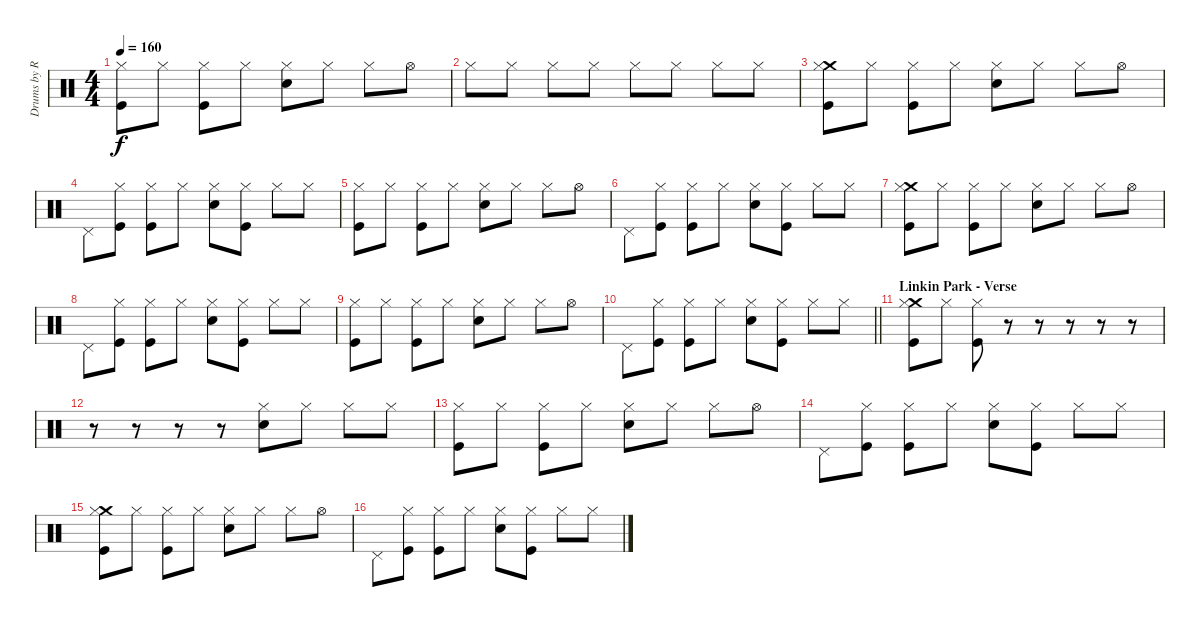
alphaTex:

\track ("Drums by Rob Bourdon" "Drums by R") {instrument percussion}
\staff {score}
\articulation defaults
\ts (4 4)
\tempo 160
\clef neutral
\ks c
("Hi-Hat (closed)" "Kick (hit)").8{dy f} "Hi-Hat (closed)".8 ("Hi-Hat (closed)" "Kick (hit)").8 "Hi-Hat (closed)".8 ("Hi-Hat (closed)" "Snare (hit) 2").8 "Hi-Hat (closed)".8 "Hi-Hat (closed)".8 "Hi-Hat (open)".8 |
"Hi-Hat (closed)".8 "Hi-Hat (closed)".8 "Hi-Hat (closed)".8 "Hi-Hat (closed)".8 "Hi-Hat (closed)".8 "Hi-Hat (closed)".8 "Hi-Hat (closed)".8 "Hi-Hat (closed)".8 |
("Crash medium (hit)" "Hi-Hat (closed)" "Kick (hit)").8 "Hi-Hat (closed)".8 ("Hi-Hat (closed)" "Kick (hit)").8 "Hi-Hat (closed)".8 ("Hi-Hat (closed)" "Snare (hit) 2").8 "Hi-Hat (closed)".8 "Hi-Hat (closed)".8 "Hi-Hat (open)".8 |
"Pedal Hi-Hat (hit)".8 ("Hi-Hat (closed)" "Kick (hit)").8 ("Hi-Hat (closed)" "Kick (hit)").8 "Hi-Hat (closed)".8 ("Hi-Hat (closed)" "Snare (hit) 2").8 ("Hi-Hat (closed)" "Kick (hit)").8 "Hi-Hat (closed)".8 "Hi-Hat (closed)".8 |
("Hi-Hat (closed)" "Kick (hit)").8 "Hi-Hat (closed)".8 ("Hi-Hat (closed)" "Kick (hit)").8 "Hi-Hat (closed)".8 ("Hi-Hat (closed)" "Snare (hit) 2").8 "Hi-Hat (closed)".8 "Hi-Hat (closed)".8 "Hi-Hat (open)".8 |
"Pedal Hi-Hat (hit)".8 ("Hi-Hat (closed)" "Kick (hit)").8 ("Hi-Hat (closed)" "Kick (hit)").8 "Hi-Hat (closed)".8 ("Hi-Hat (closed)" "Snare (hit) 2").8 ("Hi-Hat (closed)" "Kick (hit)").8 "Hi-Hat (closed)".8 "Hi-Hat (closed)".8 |
("Crash medium (hit)" "Hi-Hat (closed)" "Kick (hit)").8 "Hi-Hat (closed)".8 ("Hi-Hat (closed)" "Kick (hit)").8 "Hi-Hat (closed)".8 ("Hi-Hat (closed)" "Snare (hit) 2").8 "Hi-Hat (closed)".8 "Hi-Hat (closed)".8 "Hi-Hat (open)".8 |
"Pedal Hi-Hat (hit)".8 ("Hi-Hat (closed)" "Kick (hit)").8 ("Hi-Hat (closed)" "Kick (hit)").8 "Hi-Hat (closed)".8 ("Hi-Hat (closed)" "Snare (hit) 2").8 ("Hi-Hat (closed)" "Kick (hit)").8 "Hi-Hat (closed)".8 "Hi-Hat (closed)".8 |
("Hi-Hat (closed)" "Kick (hit)").8 "Hi-Hat (closed)".8 ("Hi-Hat (closed)" "Kick (hit)").8 "Hi-Hat (closed)".8 ("Hi-Hat (closed)" "Snare (hit) 2").8 "Hi-Hat (closed)".8 "Hi-Hat (closed)".8 "Hi-Hat (open)".8 |
\barLineRight lightlight "Pedal Hi-Hat (hit)".8
("Hi-Hat (closed)" "Kick (hit)").8 ("Hi-Hat (closed)" "Kick (hit)").8 "Hi-Hat (closed)".8 ("Hi-Hat (closed)" "Snare (hit) 2").8 ("Hi-Hat (closed)" "Kick (hit)").8 "Hi-Hat (closed)".8 "Hi-Hat (closed)".8 |
\section ("" "Linkin Park - Verse")
("Crash medium (hit)" "Hi-Hat (closed)" "Kick (hit)").8 "Hi-Hat (closed)".8 ("Hi-Hat (closed)" "Kick (hit)").8 r.8 r.8 r.8 r.8 r.8 |
r.8 r.8 r.8 r.8 ("Hi-Hat (closed)" "Snare (hit) 2").8 "Hi-Hat (closed)".8 "Hi-Hat (closed)".8 "Hi-Hat (closed)".8 |
("Hi-Hat (closed)" "Kick (hit)").8 "Hi-Hat (closed)".8 ("Hi-Hat (closed)" "Kick (hit)").8 "Hi-Hat (closed)".8 ("Hi-Hat (closed)" "Snare (hit) 2").8 "Hi-Hat (closed)".8 "Hi-Hat (closed)".8 "Hi-Hat (open)".8 |
"Pedal Hi-Hat (hit)".8 ("Hi-Hat (closed)" "Kick (hit)").8 ("Hi-Hat (closed)" "Kick (hit)").8 "Hi-Hat (closed)".8 ("Hi-Hat (closed)" "Snare (hit) 2").8 ("Hi-Hat (closed)" "Kick (hit)").8 "Hi-Hat (closed)".8 "Hi-Hat (closed)".8 |
("Crash medium (hit)" "Hi-Hat (closed)" "Kick (hit)").8 "Hi-Hat (closed)".8 ("Hi-Hat (closed)" "Kick (hit)").8 "Hi-Hat (closed)".8 ("Hi-Hat (closed)" "Snare (hit) 2").8 "Hi-Hat (closed)".8 "Hi-Hat (closed)".8 "Hi-Hat (open)".8 |
"Pedal Hi-Hat (hit)".8 ("Hi-Hat (closed)" "Kick (hit)").8 ("Hi-Hat (closed)" "Kick (hit)").8 "Hi-Hat (closed)".8 ("Hi-Hat (closed)" "Snare (hit) 2").8 ("Hi-Hat (closed)" "Kick (hit)").8 "Hi-Hat (closed)".8 "Hi-Hat (closed)".8
